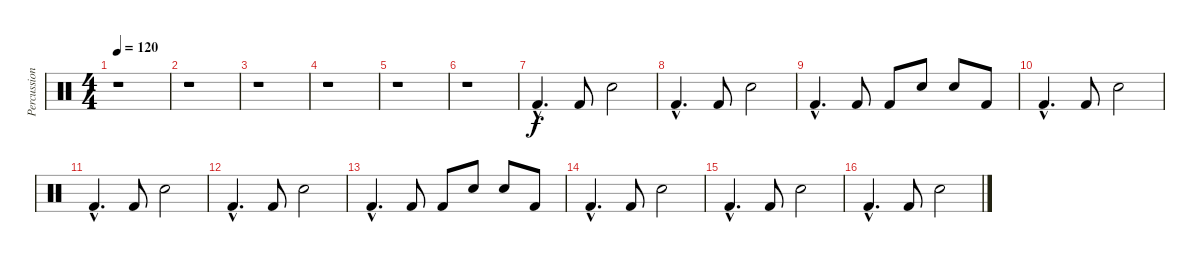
\track ("Percussioni" "Percussion") {instrument percussion}
\staff {score}
\articulation defaults
\ts (4 4)
\tempo 120
\clef neutral
\ks c
r.1{dy f} |
r.1 |
r.1 |
r.1 |
r.1 |
r.1 |
"Kick (hit) 2"{hac}.4{d} "Kick (hit) 2".8 "Snare (hit) 2".2 |
"Kick (hit) 2"{hac}.4{d} "Kick (hit) 2".8 "Snare (hit) 2".2 |
"Kick (hit) 2"{hac}.4{d} "Kick (hit) 2".8 "Kick (hit) 2".8 "Snare (hit) 2".8 "Snare (hit) 2".8 "Kick (hit) 2".8 |
"Kick (hit) 2"{hac}.4{d} "Kick (hit) 2".8 "Snare (hit) 2".2 |
"Kick (hit) 2"{hac}.4{d} "Kick (hit) 2".8 "Snare (hit) 2".2 |
"Kick (hit) 2"{hac}.4{d} "Kick (hit) 2".8 "Snare (hit) 2".2 |
"Kick (hit) 2"{hac}.4{d} "Kick (hit) 2".8 "Kick (hit) 2".8 "Snare (hit) 2".8 "Snare (hit) 2".8 "Kick (hit) 2".8 |
"Kick (hit) 2"{hac}.4{d} "Kick (hit) 2".8 "Snare (hit) 2".2 |
"Kick (hit) 2"{hac}.4{d} "Kick (hit) 2".8 "Snare (hit) 2".2 |
"Kick (hit) 2"{hac}.4{d} "Kick (hit) 2".8 "Snare (hit) 2".2
